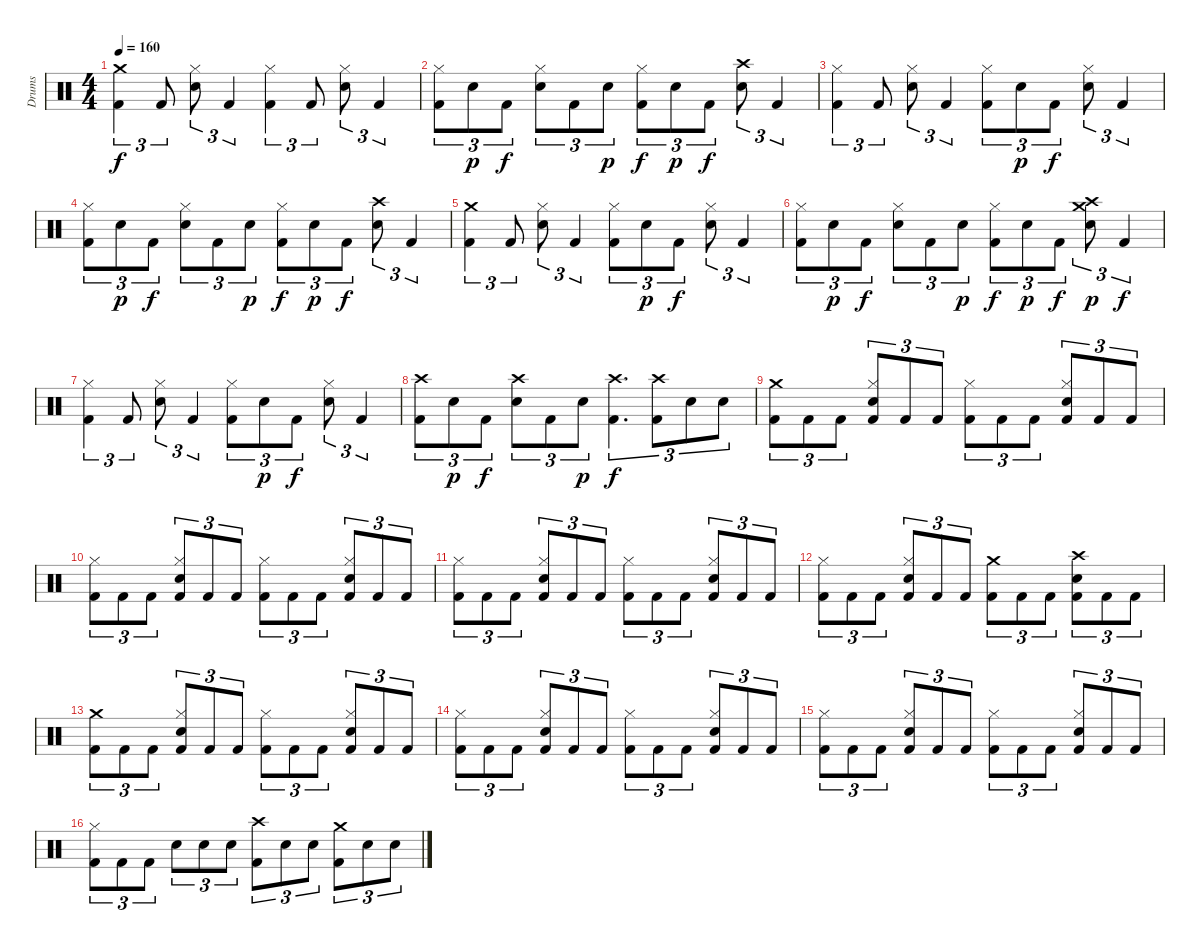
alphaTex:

\track ("Drums" "Drums") {instrument percussion}
\staff {score}
\articulation defaults
\ts (4 4)
\tempo 160
\clef neutral
\ks c
("Crash medium (hit)" "Kick (hit) 2").4{tu (3 2) dy f} "Kick (hit) 2".8{tu (3 2)} ("Hi-Hat (closed)" "Snare (hit) 2").8{tu (3 2)} "Kick (hit) 2".4{tu (3 2)} ("Hi-Hat (closed)" "Kick (hit) 2").4{tu (3 2)} "Kick (hit) 2".8{tu (3 2)} ("Hi-Hat (closed)" "Snare (hit) 2").8{tu (3 2)} "Kick (hit) 2".4{tu (3 2)} |
("Hi-Hat (closed)" "Kick (hit) 2").8{tu (3 2)} "Snare (hit) 2".8{tu (3 2) dy p} "Kick (hit) 2".8{tu (3 2) dy f} ("Hi-Hat (closed)" "Snare (hit) 2").8{tu (3 2)} "Kick (hit) 2".8{tu (3 2)} "Snare (hit) 2".8{tu (3 2) dy p} ("Hi-Hat (closed)" "Kick (hit) 2").8{tu (3 2) dy f} "Snare (hit) 2".8{tu (3 2) dy p} "Kick (hit) 2".8{tu (3 2) dy f} ("Crash high (hit)" "Snare (hit) 2").8{tu (3 2)} "Kick (hit) 2".4{tu (3 2)} |
("Hi-Hat (closed)" "Kick (hit) 2").4{tu (3 2)} "Kick (hit) 2".8{tu (3 2)} ("Hi-Hat (closed)" "Snare (hit) 2").8{tu (3 2)} "Kick (hit) 2".4{tu (3 2)} ("Hi-Hat (closed)" "Kick (hit) 2").8{tu (3 2)} "Snare (hit) 2".8{tu (3 2) dy p} "Kick (hit) 2".8{tu (3 2) dy f} ("Hi-Hat (closed)" "Snare (hit) 2").8{tu (3 2)} "Kick (hit) 2".4{tu (3 2)} |
("Hi-Hat (closed)" "Kick (hit) 2").8{tu (3 2)} "Snare (hit) 2".8{tu (3 2) dy p} "Kick (hit) 2".8{tu (3 2) dy f} ("Hi-Hat (closed)" "Snare (hit) 2").8{tu (3 2)} "Kick (hit) 2".8{tu (3 2)} "Snare (hit) 2".8{tu (3 2) dy p} ("Hi-Hat (closed)" "Kick (hit) 2").8{tu (3 2) dy f} "Snare (hit) 2".8{tu (3 2) dy p} "Kick (hit) 2".8{tu (3 2) dy f} ("Crash high (hit)" "Snare (hit) 2").8{tu (3 2)} "Kick (hit) 2".4{tu (3 2)} |
("Crash medium (hit)" "Kick (hit) 2").4{tu (3 2)} "Kick (hit) 2".8{tu (3 2)} ("Hi-Hat (closed)" "Snare (hit) 2").8{tu (3 2)} "Kick (hit) 2".4{tu (3 2)} ("Hi-Hat (closed)" "Kick (hit) 2").8{tu (3 2)} "Snare (hit) 2".8{tu (3 2) dy p} "Kick (hit) 2".8{tu (3 2) dy f} ("Hi-Hat (closed)" "Snare (hit) 2").8{tu (3 2)} "Kick (hit) 2".4{tu (3 2)} |
("Hi-Hat (closed)" "Kick (hit) 2").8{tu (3 2)} "Snare (hit) 2".8{tu (3 2) dy p} "Kick (hit) 2".8{tu (3 2) dy f} ("Hi-Hat (closed)" "Snare (hit) 2").8{tu (3 2)} "Kick (hit) 2".8{tu (3 2)} "Snare (hit) 2".8{tu (3 2) dy p} ("Hi-Hat (closed)" "Kick (hit) 2").8{tu (3 2) dy f} "Snare (hit) 2".8{tu (3 2) dy p} "Kick (hit) 2".8{tu (3 2) dy f} ("Crash medium (hit)" "Crash high (hit)" "Snare (hit) 2").8{tu (3 2) dy p} "Kick (hit) 2".4{tu (3 2) dy f} |
("Hi-Hat (closed)" "Kick (hit) 2").4{tu (3 2)} "Kick (hit) 2".8{tu (3 2)} ("Hi-Hat (closed)" "Snare (hit) 2").8{tu (3 2)} "Kick (hit) 2".4{tu (3 2)} ("Hi-Hat (closed)" "Kick (hit) 2").8{tu (3 2)} "Snare (hit) 2".8{tu (3 2) dy p} "Kick (hit) 2".8{tu (3 2) dy f} ("Hi-Hat (closed)" "Snare (hit) 2").8{tu (3 2)} "Kick (hit) 2".4{tu (3 2)} |
("Crash high (hit)" "Kick (hit) 2").8{tu (3 2)} "Snare (hit) 2".8{tu (3 2) dy p} "Kick (hit) 2".8{tu (3 2) dy f} ("Crash high (hit)" "Snare (hit) 2").8{tu (3 2)} "Kick (hit) 2".8{tu (3 2)} "Snare (hit) 2".8{tu (3 2) dy p} ("Crash high (hit)" "Kick (hit) 2").4{d tu (3 2) dy f} ("Crash high (hit)" "Kick (hit) 2").8{tu (3 2)} "Snare (hit) 2".8{tu (3 2)} "Snare (hit) 2".8{tu (3 2)} |
("Crash medium (hit)" "Kick (hit) 2").8{tu (3 2)} "Kick (hit) 2".8{tu (3 2)} "Kick (hit) 2".8{tu (3 2)} ("Hi-Hat (closed)" "Snare (hit) 2" "Kick (hit) 2").8{tu (3 2)} "Kick (hit) 2".8{tu (3 2)} "Kick (hit) 2".8{tu (3 2)} ("Hi-Hat (closed)" "Kick (hit) 2").8{tu (3 2)} "Kick (hit) 2".8{tu (3 2)} "Kick (hit) 2".8{tu (3 2)} ("Hi-Hat (closed)" "Snare (hit) 2" "Kick (hit) 2").8{tu (3 2)} "Kick (hit) 2".8{tu (3 2)} "Kick (hit) 2".8{tu (3 2)} |
("Hi-Hat (closed)" "Kick (hit) 2").8{tu (3 2)} "Kick (hit) 2".8{tu (3 2)} "Kick (hit) 2".8{tu (3 2)} ("Hi-Hat (closed)" "Snare (hit) 2" "Kick (hit) 2").8{tu (3 2)} "Kick (hit) 2".8{tu (3 2)} "Kick (hit) 2".8{tu (3 2)} ("Hi-Hat (closed)" "Kick (hit) 2").8{tu (3 2)} "Kick (hit) 2".8{tu (3 2)} "Kick (hit) 2".8{tu (3 2)} ("Hi-Hat (closed)" "Snare (hit) 2" "Kick (hit) 2").8{tu (3 2)} "Kick (hit) 2".8{tu (3 2)} "Kick (hit) 2".8{tu (3 2)} |
("Hi-Hat (closed)" "Kick (hit) 2").8{tu (3 2)} "Kick (hit) 2".8{tu (3 2)} "Kick (hit) 2".8{tu (3 2)} ("Hi-Hat (closed)" "Snare (hit) 2" "Kick (hit) 2").8{tu (3 2)} "Kick (hit) 2".8{tu (3 2)} "Kick (hit) 2".8{tu (3 2)} ("Hi-Hat (closed)" "Kick (hit) 2").8{tu (3 2)} "Kick (hit) 2".8{tu (3 2)} "Kick (hit) 2".8{tu (3 2)} ("Hi-Hat (closed)" "Snare (hit) 2" "Kick (hit) 2").8{tu (3 2)} "Kick (hit) 2".8{tu (3 2)} "Kick (hit) 2".8{tu (3 2)} |
("Hi-Hat (closed)" "Kick (hit) 2").8{tu (3 2)} "Kick (hit) 2".8{tu (3 2)} "Kick (hit) 2".8{tu (3 2)} ("Hi-Hat (closed)" "Snare (hit) 2" "Kick (hit) 2").8{tu (3 2)} "Kick (hit) 2".8{tu (3 2)} "Kick (hit) 2".8{tu (3 2)} ("Crash medium (hit)" "Kick (hit) 2").8{tu (3 2)} "Kick (hit) 2".8{tu (3 2)} "Kick (hit) 2".8{tu (3 2)} ("Crash high (hit)" "Snare (hit) 2" "Kick (hit) 2").8{tu (3 2)} "Kick (hit) 2".8{tu (3 2)} "Kick (hit) 2".8{tu (3 2)} |
("Crash medium (hit)" "Kick (hit) 2").8{tu (3 2)} "Kick (hit) 2".8{tu (3 2)} "Kick (hit) 2".8{tu (3 2)} ("Hi-Hat (closed)" "Snare (hit) 2" "Kick (hit) 2").8{tu (3 2)} "Kick (hit) 2".8{tu (3 2)} "Kick (hit) 2".8{tu (3 2)} ("Hi-Hat (closed)" "Kick (hit) 2").8{tu (3 2)} "Kick (hit) 2".8{tu (3 2)} "Kick (hit) 2".8{tu (3 2)} ("Hi-Hat (closed)" "Snare (hit) 2" "Kick (hit) 2").8{tu (3 2)} "Kick (hit) 2".8{tu (3 2)} "Kick (hit) 2".8{tu (3 2)} |
("Hi-Hat (closed)" "Kick (hit) 2").8{tu (3 2)} "Kick (hit) 2".8{tu (3 2)} "Kick (hit) 2".8{tu (3 2)} ("Hi-Hat (closed)" "Snare (hit) 2" "Kick (hit) 2").8{tu (3 2)} "Kick (hit) 2".8{tu (3 2)} "Kick (hit) 2".8{tu (3 2)} ("Hi-Hat (closed)" "Kick (hit) 2").8{tu (3 2)} "Kick (hit) 2".8{tu (3 2)} "Kick (hit) 2".8{tu (3 2)} ("Hi-Hat (closed)" "Snare (hit) 2" "Kick (hit) 2").8{tu (3 2)} "Kick (hit) 2".8{tu (3 2)} "Kick (hit) 2".8{tu (3 2)} |
("Hi-Hat (closed)" "Kick (hit) 2").8{tu (3 2)} "Kick (hit) 2".8{tu (3 2)} "Kick (hit) 2".8{tu (3 2)} ("Hi-Hat (closed)" "Snare (hit) 2" "Kick (hit) 2").8{tu (3 2)} "Kick (hit) 2".8{tu (3 2)} "Kick (hit) 2".8{tu (3 2)} ("Hi-Hat (closed)" "Kick (hit) 2").8{tu (3 2)} "Kick (hit) 2".8{tu (3 2)} "Kick (hit) 2".8{tu (3 2)} ("Hi-Hat (closed)" "Snare (hit) 2" "Kick (hit) 2").8{tu (3 2)} "Kick (hit) 2".8{tu (3 2)} "Kick (hit) 2".8{tu (3 2)} |
("Hi-Hat (closed)" "Kick (hit) 2").8{tu (3 2)} "Kick (hit) 2".8{tu (3 2)} "Kick (hit) 2".8{tu (3 2)} "Snare (hit) 2".8{tu (3 2)} "Snare (hit) 2".8{tu (3 2)} "Snare (hit) 2".8{tu (3 2)} ("Crash high (hit)" "Kick (hit) 2").8{tu (3 2)} "Snare (hit) 2".8{tu (3 2)} "Snare (hit) 2".8{tu (3 2)} ("Crash medium (hit)" "Kick (hit) 2").8{tu (3 2)} "Snare (hit) 2".8{tu (3 2)} "Snare (hit) 2".8{tu (3 2)}
